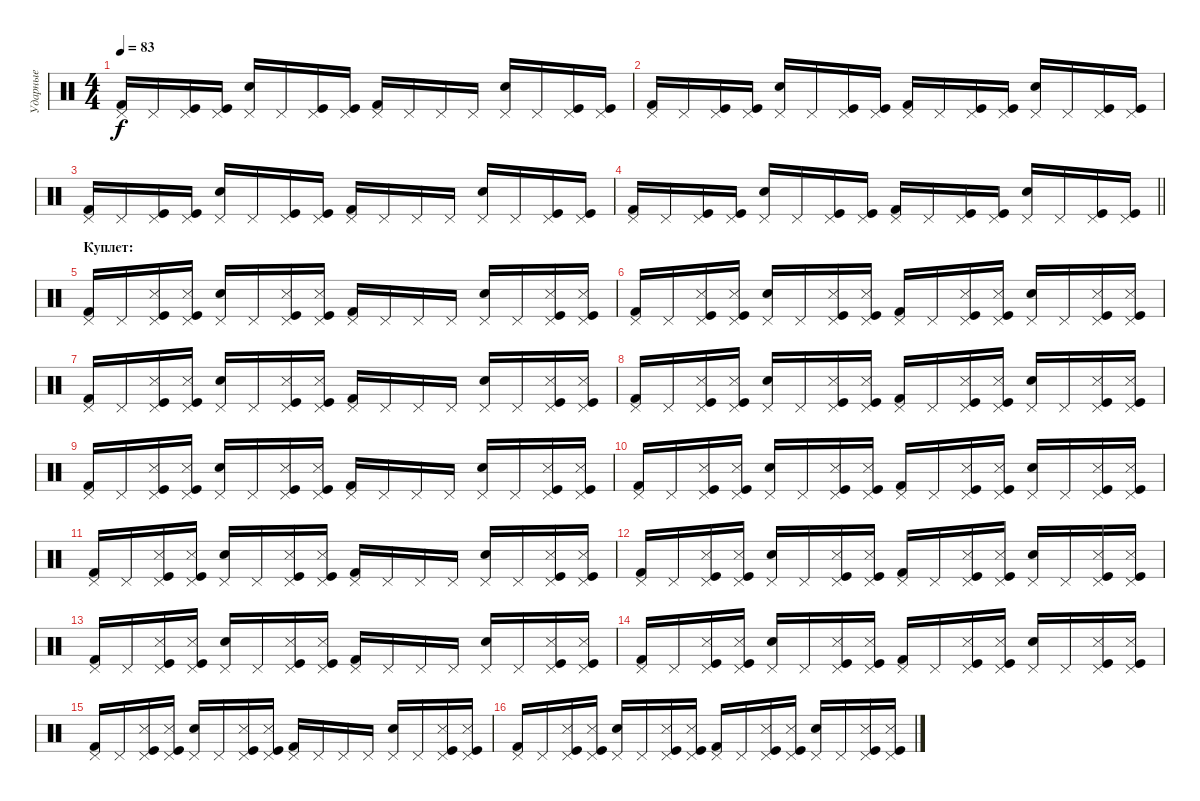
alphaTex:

\track ("Ударные" "Ударные") {instrument percussion}
\staff {score}
\articulation defaults
\ts (4 4)
\tempo 83
\clef neutral
\ks c
("Kick (hit) 2" "Pedal Hi-Hat (hit)").16{dy f} "Pedal Hi-Hat (hit)".16 ("Kick (hit)" "Pedal Hi-Hat (hit)").16 ("Kick (hit)" "Pedal Hi-Hat (hit)").16 ("Electric Snare (hit)" "Pedal Hi-Hat (hit)").16 "Pedal Hi-Hat (hit)".16 ("Kick (hit)" "Pedal Hi-Hat (hit)").16 ("Kick (hit)" "Pedal Hi-Hat (hit)").16 ("Kick (hit) 2" "Pedal Hi-Hat (hit)").16 "Pedal Hi-Hat (hit)".16 "Pedal Hi-Hat (hit)".16 "Pedal Hi-Hat (hit)".16 ("Electric Snare (hit)" "Pedal Hi-Hat (hit)").16 "Pedal Hi-Hat (hit)".16 ("Kick (hit)" "Pedal Hi-Hat (hit)").16 ("Kick (hit)" "Pedal Hi-Hat (hit)").16 |
("Kick (hit) 2" "Pedal Hi-Hat (hit)").16 "Pedal Hi-Hat (hit)".16 ("Kick (hit)" "Pedal Hi-Hat (hit)").16 ("Kick (hit)" "Pedal Hi-Hat (hit)").16 ("Electric Snare (hit)" "Pedal Hi-Hat (hit)").16 "Pedal Hi-Hat (hit)".16 ("Kick (hit)" "Pedal Hi-Hat (hit)").16 ("Kick (hit)" "Pedal Hi-Hat (hit)").16 ("Kick (hit) 2" "Pedal Hi-Hat (hit)").16 "Pedal Hi-Hat (hit)".16 ("Kick (hit)" "Pedal Hi-Hat (hit)").16 ("Kick (hit)" "Pedal Hi-Hat (hit)").16 ("Electric Snare (hit)" "Pedal Hi-Hat (hit)").16 "Pedal Hi-Hat (hit)".16 ("Kick (hit)" "Pedal Hi-Hat (hit)").16 ("Kick (hit)" "Pedal Hi-Hat (hit)").16 |
("Kick (hit) 2" "Pedal Hi-Hat (hit)").16 "Pedal Hi-Hat (hit)".16 ("Kick (hit)" "Pedal Hi-Hat (hit)").16 ("Kick (hit)" "Pedal Hi-Hat (hit)").16 ("Electric Snare (hit)" "Pedal Hi-Hat (hit)").16 "Pedal Hi-Hat (hit)".16 ("Kick (hit)" "Pedal Hi-Hat (hit)").16 ("Kick (hit)" "Pedal Hi-Hat (hit)").16 ("Kick (hit) 2" "Pedal Hi-Hat (hit)").16 "Pedal Hi-Hat (hit)".16 "Pedal Hi-Hat (hit)".16 "Pedal Hi-Hat (hit)".16 ("Electric Snare (hit)" "Pedal Hi-Hat (hit)").16 "Pedal Hi-Hat (hit)".16 ("Kick (hit)" "Pedal Hi-Hat (hit)").16 ("Kick (hit)" "Pedal Hi-Hat (hit)").16 |
\barLineRight lightlight
("Kick (hit) 2" "Pedal Hi-Hat (hit)").16 "Pedal Hi-Hat (hit)".16 ("Kick (hit)" "Pedal Hi-Hat (hit)").16 ("Kick (hit)" "Pedal Hi-Hat (hit)").16 ("Electric Snare (hit)" "Pedal Hi-Hat (hit)").16 "Pedal Hi-Hat (hit)".16 ("Kick (hit)" "Pedal Hi-Hat (hit)").16 ("Kick (hit)" "Pedal Hi-Hat (hit)").16 ("Kick (hit) 2" "Pedal Hi-Hat (hit)").16 "Pedal Hi-Hat (hit)".16 ("Kick (hit)" "Pedal Hi-Hat (hit)").16 ("Kick (hit)" "Pedal Hi-Hat (hit)").16 ("Electric Snare (hit)" "Pedal Hi-Hat (hit)").16 "Pedal Hi-Hat (hit)".16 ("Kick (hit)" "Pedal Hi-Hat (hit)").16 ("Kick (hit)" "Pedal Hi-Hat (hit)").16 |
\section ("" "Куплет:")
("Kick (hit) 2" "Pedal Hi-Hat (hit)").16 "Pedal Hi-Hat (hit)".16 ("Kick (hit)" "Snare (side stick) 3" "Pedal Hi-Hat (hit)").16 ("Kick (hit)" "Snare (side stick) 3" "Pedal Hi-Hat (hit)").16 ("Electric Snare (hit)" "Pedal Hi-Hat (hit)").16 "Pedal Hi-Hat (hit)".16 ("Kick (hit)" "Snare (side stick) 3" "Pedal Hi-Hat (hit)").16 ("Kick (hit)" "Snare (side stick) 3" "Pedal Hi-Hat (hit)").16 ("Kick (hit) 2" "Pedal Hi-Hat (hit)").16 "Pedal Hi-Hat (hit)".16 "Pedal Hi-Hat (hit)".16 "Pedal Hi-Hat (hit)".16 ("Electric Snare (hit)" "Pedal Hi-Hat (hit)").16 "Pedal Hi-Hat (hit)".16 ("Kick (hit)" "Snare (side stick) 3" "Pedal Hi-Hat (hit)").16 ("Kick (hit)" "Snare (side stick) 3" "Pedal Hi-Hat (hit)").16 |
("Kick (hit) 2" "Pedal Hi-Hat (hit)").16 "Pedal Hi-Hat (hit)".16 ("Kick (hit)" "Snare (side stick) 3" "Pedal Hi-Hat (hit)").16 ("Kick (hit)" "Snare (side stick) 3" "Pedal Hi-Hat (hit)").16 ("Electric Snare (hit)" "Pedal Hi-Hat (hit)").16 "Pedal Hi-Hat (hit)".16 ("Kick (hit)" "Snare (side stick) 3" "Pedal Hi-Hat (hit)").16 ("Kick (hit)" "Snare (side stick) 3" "Pedal Hi-Hat (hit)").16 ("Kick (hit) 2" "Pedal Hi-Hat (hit)").16 "Pedal Hi-Hat (hit)".16 ("Kick (hit)" "Snare (side stick) 3" "Pedal Hi-Hat (hit)").16 ("Kick (hit)" "Snare (side stick) 3" "Pedal Hi-Hat (hit)").16 ("Electric Snare (hit)" "Pedal Hi-Hat (hit)").16 "Pedal Hi-Hat (hit)".16 ("Kick (hit)" "Snare (side stick) 3" "Pedal Hi-Hat (hit)").16 ("Kick (hit)" "Snare (side stick) 3" "Pedal Hi-Hat (hit)").16 |
("Kick (hit) 2" "Pedal Hi-Hat (hit)").16 "Pedal Hi-Hat (hit)".16 ("Kick (hit)" "Snare (side stick) 3" "Pedal Hi-Hat (hit)").16 ("Kick (hit)" "Snare (side stick) 3" "Pedal Hi-Hat (hit)").16 ("Electric Snare (hit)" "Pedal Hi-Hat (hit)").16 "Pedal Hi-Hat (hit)".16 ("Kick (hit)" "Snare (side stick) 3" "Pedal Hi-Hat (hit)").16 ("Kick (hit)" "Snare (side stick) 3" "Pedal Hi-Hat (hit)").16 ("Kick (hit) 2" "Pedal Hi-Hat (hit)").16 "Pedal Hi-Hat (hit)".16 "Pedal Hi-Hat (hit)".16 "Pedal Hi-Hat (hit)".16 ("Electric Snare (hit)" "Pedal Hi-Hat (hit)").16 "Pedal Hi-Hat (hit)".16 ("Kick (hit)" "Snare (side stick) 3" "Pedal Hi-Hat (hit)").16 ("Kick (hit)" "Snare (side stick) 3" "Pedal Hi-Hat (hit)").16 |
("Kick (hit) 2" "Pedal Hi-Hat (hit)").16 "Pedal Hi-Hat (hit)".16 ("Kick (hit)" "Snare (side stick) 3" "Pedal Hi-Hat (hit)").16 ("Kick (hit)" "Snare (side stick) 3" "Pedal Hi-Hat (hit)").16 ("Electric Snare (hit)" "Pedal Hi-Hat (hit)").16 "Pedal Hi-Hat (hit)".16 ("Kick (hit)" "Snare (side stick) 3" "Pedal Hi-Hat (hit)").16 ("Kick (hit)" "Snare (side stick) 3" "Pedal Hi-Hat (hit)").16 ("Kick (hit) 2" "Pedal Hi-Hat (hit)").16 "Pedal Hi-Hat (hit)".16 ("Kick (hit)" "Snare (side stick) 3" "Pedal Hi-Hat (hit)").16 ("Kick (hit)" "Snare (side stick) 3" "Pedal Hi-Hat (hit)").16 ("Electric Snare (hit)" "Pedal Hi-Hat (hit)").16 "Pedal Hi-Hat (hit)".16 ("Kick (hit)" "Snare (side stick) 3" "Pedal Hi-Hat (hit)").16 ("Kick (hit)" "Snare (side stick) 3" "Pedal Hi-Hat (hit)").16 |
("Kick (hit) 2" "Pedal Hi-Hat (hit)").16 "Pedal Hi-Hat (hit)".16 ("Kick (hit)" "Snare (side stick) 3" "Pedal Hi-Hat (hit)").16 ("Kick (hit)" "Snare (side stick) 3" "Pedal Hi-Hat (hit)").16 ("Electric Snare (hit)" "Pedal Hi-Hat (hit)").16 "Pedal Hi-Hat (hit)".16 ("Kick (hit)" "Snare (side stick) 3" "Pedal Hi-Hat (hit)").16 ("Kick (hit)" "Snare (side stick) 3" "Pedal Hi-Hat (hit)").16 ("Kick (hit) 2" "Pedal Hi-Hat (hit)").16 "Pedal Hi-Hat (hit)".16 "Pedal Hi-Hat (hit)".16 "Pedal Hi-Hat (hit)".16 ("Electric Snare (hit)" "Pedal Hi-Hat (hit)").16 "Pedal Hi-Hat (hit)".16 ("Kick (hit)" "Snare (side stick) 3" "Pedal Hi-Hat (hit)").16 ("Kick (hit)" "Snare (side stick) 3" "Pedal Hi-Hat (hit)").16 |
("Kick (hit) 2" "Pedal Hi-Hat (hit)").16 "Pedal Hi-Hat (hit)".16 ("Kick (hit)" "Snare (side stick) 3" "Pedal Hi-Hat (hit)").16 ("Kick (hit)" "Snare (side stick) 3" "Pedal Hi-Hat (hit)").16 ("Electric Snare (hit)" "Pedal Hi-Hat (hit)").16 "Pedal Hi-Hat (hit)".16 ("Kick (hit)" "Snare (side stick) 3" "Pedal Hi-Hat (hit)").16 ("Kick (hit)" "Snare (side stick) 3" "Pedal Hi-Hat (hit)").16 ("Kick (hit) 2" "Pedal Hi-Hat (hit)").16 "Pedal Hi-Hat (hit)".16 ("Kick (hit)" "Snare (side stick) 3" "Pedal Hi-Hat (hit)").16 ("Kick (hit)" "Snare (side stick) 3" "Pedal Hi-Hat (hit)").16 ("Electric Snare (hit)" "Pedal Hi-Hat (hit)").16 "Pedal Hi-Hat (hit)".16 ("Kick (hit)" "Snare (side stick) 3" "Pedal Hi-Hat (hit)").16 ("Kick (hit)" "Snare (side stick) 3" "Pedal Hi-Hat (hit)").16 |
("Kick (hit) 2" "Pedal Hi-Hat (hit)").16 "Pedal Hi-Hat (hit)".16 ("Kick (hit)" "Snare (side stick) 3" "Pedal Hi-Hat (hit)").16 ("Kick (hit)" "Snare (side stick) 3" "Pedal Hi-Hat (hit)").16 ("Electric Snare (hit)" "Pedal Hi-Hat (hit)").16 "Pedal Hi-Hat (hit)".16 ("Kick (hit)" "Snare (side stick) 3" "Pedal Hi-Hat (hit)").16 ("Kick (hit)" "Snare (side stick) 3" "Pedal Hi-Hat (hit)").16 ("Kick (hit) 2" "Pedal Hi-Hat (hit)").16 "Pedal Hi-Hat (hit)".16 "Pedal Hi-Hat (hit)".16 "Pedal Hi-Hat (hit)".16 ("Electric Snare (hit)" "Pedal Hi-Hat (hit)").16 "Pedal Hi-Hat (hit)".16 ("Kick (hit)" "Snare (side stick) 3" "Pedal Hi-Hat (hit)").16 ("Kick (hit)" "Snare (side stick) 3" "Pedal Hi-Hat (hit)").16 |
("Kick (hit) 2" "Pedal Hi-Hat (hit)").16 "Pedal Hi-Hat (hit)".16 ("Kick (hit)" "Snare (side stick) 3" "Pedal Hi-Hat (hit)").16 ("Kick (hit)" "Snare (side stick) 3" "Pedal Hi-Hat (hit)").16 ("Electric Snare (hit)" "Pedal Hi-Hat (hit)").16 "Pedal Hi-Hat (hit)".16 ("Kick (hit)" "Snare (side stick) 3" "Pedal Hi-Hat (hit)").16 ("Kick (hit)" "Snare (side stick) 3" "Pedal Hi-Hat (hit)").16 ("Kick (hit) 2" "Pedal Hi-Hat (hit)").16 "Pedal Hi-Hat (hit)".16 ("Kick (hit)" "Snare (side stick) 3" "Pedal Hi-Hat (hit)").16 ("Kick (hit)" "Snare (side stick) 3" "Pedal Hi-Hat (hit)").16 ("Electric Snare (hit)" "Pedal Hi-Hat (hit)").16 "Pedal Hi-Hat (hit)".16 ("Kick (hit)" "Snare (side stick) 3" "Pedal Hi-Hat (hit)").16 ("Kick (hit)" "Snare (side stick) 3" "Pedal Hi-Hat (hit)").16 |
("Kick (hit) 2" "Pedal Hi-Hat (hit)").16 "Pedal Hi-Hat (hit)".16 ("Kick (hit)" "Snare (side stick) 3" "Pedal Hi-Hat (hit)").16 ("Kick (hit)" "Snare (side stick) 3" "Pedal Hi-Hat (hit)").16 ("Electric Snare (hit)" "Pedal Hi-Hat (hit)").16 "Pedal Hi-Hat (hit)".16 ("Kick (hit)" "Snare (side stick) 3" "Pedal Hi-Hat (hit)").16 ("Kick (hit)" "Snare (side stick) 3" "Pedal Hi-Hat (hit)").16 ("Kick (hit) 2" "Pedal Hi-Hat (hit)").16 "Pedal Hi-Hat (hit)".16 "Pedal Hi-Hat (hit)".16 "Pedal Hi-Hat (hit)".16 ("Electric Snare (hit)" "Pedal Hi-Hat (hit)").16 "Pedal Hi-Hat (hit)".16 ("Kick (hit)" "Snare (side stick) 3" "Pedal Hi-Hat (hit)").16 ("Kick (hit)" "Snare (side stick) 3" "Pedal Hi-Hat (hit)").16 |
("Kick (hit) 2" "Pedal Hi-Hat (hit)").16 "Pedal Hi-Hat (hit)".16 ("Kick (hit)" "Snare (side stick) 3" "Pedal Hi-Hat (hit)").16 ("Kick (hit)" "Snare (side stick) 3" "Pedal Hi-Hat (hit)").16 ("Electric Snare (hit)" "Pedal Hi-Hat (hit)").16 "Pedal Hi-Hat (hit)".16 ("Kick (hit)" "Snare (side stick) 3" "Pedal Hi-Hat (hit)").16 ("Kick (hit)" "Snare (side stick) 3" "Pedal Hi-Hat (hit)").16 ("Kick (hit) 2" "Pedal Hi-Hat (hit)").16 "Pedal Hi-Hat (hit)".16 ("Kick (hit)" "Snare (side stick) 3" "Pedal Hi-Hat (hit)").16 ("Kick (hit)" "Snare (side stick) 3" "Pedal Hi-Hat (hit)").16 ("Electric Snare (hit)" "Pedal Hi-Hat (hit)").16 "Pedal Hi-Hat (hit)".16 ("Kick (hit)" "Snare (side stick) 3" "Pedal Hi-Hat (hit)").16 ("Kick (hit)" "Snare (side stick) 3" "Pedal Hi-Hat (hit)").16 |
("Kick (hit) 2" "Pedal Hi-Hat (hit)").16 "Pedal Hi-Hat (hit)".16 ("Kick (hit)" "Snare (side stick) 3" "Pedal Hi-Hat (hit)").16 ("Kick (hit)" "Snare (side stick) 3" "Pedal Hi-Hat (hit)").16 ("Electric Snare (hit)" "Pedal Hi-Hat (hit)").16 "Pedal Hi-Hat (hit)".16 ("Kick (hit)" "Snare (side stick) 3" "Pedal Hi-Hat (hit)").16 ("Kick (hit)" "Snare (side stick) 3" "Pedal Hi-Hat (hit)").16 ("Kick (hit) 2" "Pedal Hi-Hat (hit)").16 "Pedal Hi-Hat (hit)".16 "Pedal Hi-Hat (hit)".16 "Pedal Hi-Hat (hit)".16 ("Electric Snare (hit)" "Pedal Hi-Hat (hit)").16 "Pedal Hi-Hat (hit)".16 ("Kick (hit)" "Snare (side stick) 3" "Pedal Hi-Hat (hit)").16 ("Kick (hit)" "Snare (side stick) 3" "Pedal Hi-Hat (hit)").16 |
("Kick (hit) 2" "Pedal Hi-Hat (hit)").16 "Pedal Hi-Hat (hit)".16 ("Kick (hit)" "Snare (side stick) 3" "Pedal Hi-Hat (hit)").16 ("Kick (hit)" "Snare (side stick) 3" "Pedal Hi-Hat (hit)").16 ("Electric Snare (hit)" "Pedal Hi-Hat (hit)").16 "Pedal Hi-Hat (hit)".16 ("Kick (hit)" "Snare (side stick) 3" "Pedal Hi-Hat (hit)").16 ("Kick (hit)" "Snare (side stick) 3" "Pedal Hi-Hat (hit)").16 ("Kick (hit) 2" "Pedal Hi-Hat (hit)").16 "Pedal Hi-Hat (hit)".16 ("Kick (hit)" "Snare (side stick) 3" "Pedal Hi-Hat (hit)").16 ("Kick (hit)" "Snare (side stick) 3" "Pedal Hi-Hat (hit)").16 ("Electric Snare (hit)" "Pedal Hi-Hat (hit)").16 "Pedal Hi-Hat (hit)".16 ("Kick (hit)" "Snare (side stick) 3" "Pedal Hi-Hat (hit)").16 ("Kick (hit)" "Snare (side stick) 3" "Pedal Hi-Hat (hit)").16
